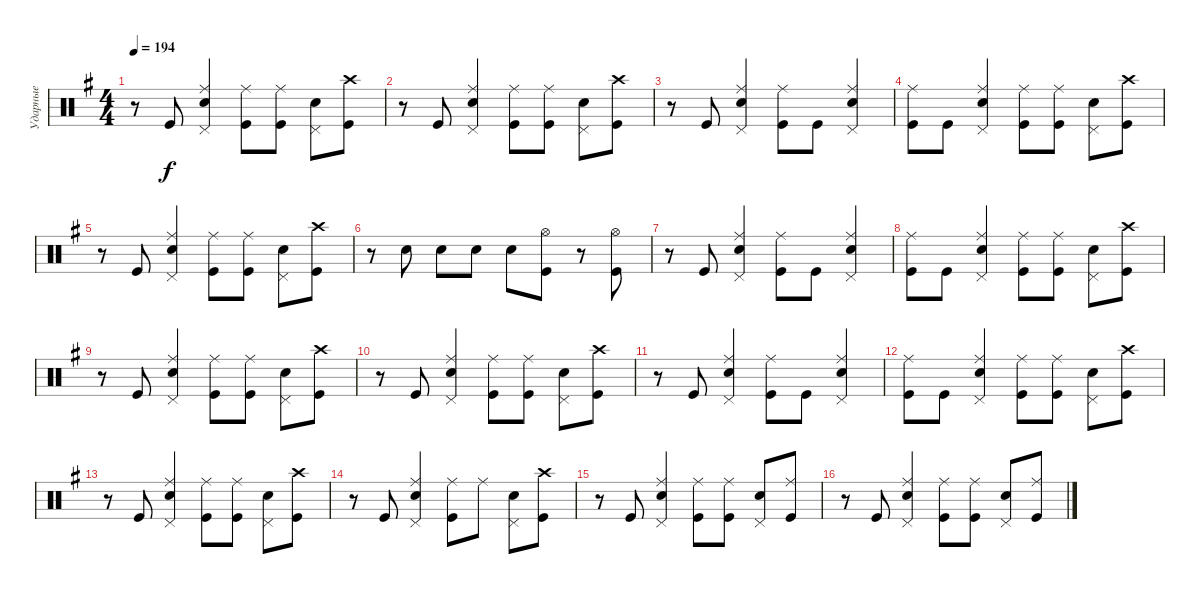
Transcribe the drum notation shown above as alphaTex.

\track ("Ударные" "Ударные") {instrument percussion}
\staff {score}
\articulation defaults
\ts (4 4)
\tempo 194
\clef neutral
\ks eminor
r.8{dy f} "Kick (hit)".8 ("Snare (hit) 2" "Ride (middle)" "Pedal Hi-Hat (hit)").4 ("Kick (hit)" "Ride (middle)").8 ("Kick (hit)" "Ride (middle)").8 ("Snare (hit) 2" "Pedal Hi-Hat (hit)").8 ("Kick (hit)" "Crash high (hit)").8 |
r.8 "Kick (hit)".8 ("Snare (hit) 2" "Ride (middle)" "Pedal Hi-Hat (hit)").4 ("Kick (hit)" "Ride (middle)").8 ("Kick (hit)" "Ride (middle)").8 ("Snare (hit) 2" "Pedal Hi-Hat (hit)").8 ("Kick (hit)" "Crash high (hit)").8 |
r.8 "Kick (hit)".8 ("Snare (hit) 2" "Ride (middle)" "Pedal Hi-Hat (hit)").4 ("Kick (hit)" "Ride (middle)").8 "Kick (hit)".8 ("Snare (hit) 2" "Ride (middle)" "Pedal Hi-Hat (hit)").4 |
("Kick (hit)" "Ride (middle)").8 "Kick (hit)".8 ("Snare (hit) 2" "Ride (middle)" "Pedal Hi-Hat (hit)").4 ("Kick (hit)" "Ride (middle)").8 ("Kick (hit)" "Ride (middle)").8 ("Snare (hit) 2" "Pedal Hi-Hat (hit)").8 ("Kick (hit)" "Crash high (hit)").8 |
r.8 "Kick (hit)".8 ("Snare (hit) 2" "Ride (middle)" "Pedal Hi-Hat (hit)").4 ("Kick (hit)" "Ride (middle)").8 ("Kick (hit)" "Ride (middle)").8 ("Snare (hit) 2" "Pedal Hi-Hat (hit)").8 ("Kick (hit)" "Crash high (hit)").8 |
r.8 "Snare (hit) 2".8 "Snare (hit) 2".8 "Snare (hit) 2".8 "Snare (hit) 2".8 ("Kick (hit)" "Hi-Hat (open)").8 r.8 ("Kick (hit)" "Hi-Hat (open)").8 |
r.8 "Kick (hit)".8 ("Snare (hit) 2" "Ride (middle)" "Pedal Hi-Hat (hit)").4 ("Kick (hit)" "Ride (middle)").8 "Kick (hit)".8 ("Snare (hit) 2" "Ride (middle)" "Pedal Hi-Hat (hit)").4 |
("Kick (hit)" "Ride (middle)").8 "Kick (hit)".8 ("Snare (hit) 2" "Ride (middle)" "Pedal Hi-Hat (hit)").4 ("Kick (hit)" "Ride (middle)").8 ("Kick (hit)" "Ride (middle)").8 ("Snare (hit) 2" "Pedal Hi-Hat (hit)").8 ("Kick (hit)" "Crash high (hit)").8 |
r.8 "Kick (hit)".8 ("Snare (hit) 2" "Ride (middle)" "Pedal Hi-Hat (hit)").4 ("Kick (hit)" "Ride (middle)").8 ("Kick (hit)" "Ride (middle)").8 ("Snare (hit) 2" "Pedal Hi-Hat (hit)").8 ("Kick (hit)" "Crash high (hit)").8 |
r.8 "Kick (hit)".8 ("Snare (hit) 2" "Ride (middle)" "Pedal Hi-Hat (hit)").4 ("Kick (hit)" "Ride (middle)").8 ("Kick (hit)" "Ride (middle)").8 ("Snare (hit) 2" "Pedal Hi-Hat (hit)").8 ("Kick (hit)" "Crash high (hit)").8 |
r.8 "Kick (hit)".8 ("Snare (hit) 2" "Ride (middle)" "Pedal Hi-Hat (hit)").4 ("Kick (hit)" "Ride (middle)").8 "Kick (hit)".8 ("Snare (hit) 2" "Ride (middle)" "Pedal Hi-Hat (hit)").4 |
("Kick (hit)" "Ride (middle)").8 "Kick (hit)".8 ("Snare (hit) 2" "Ride (middle)" "Pedal Hi-Hat (hit)").4 ("Kick (hit)" "Ride (middle)").8 ("Kick (hit)" "Ride (middle)").8 ("Snare (hit) 2" "Pedal Hi-Hat (hit)").8 ("Kick (hit)" "Crash high (hit)").8 |
r.8 "Kick (hit)".8 ("Snare (hit) 2" "Ride (middle)" "Pedal Hi-Hat (hit)").4 ("Kick (hit)" "Ride (middle)").8 ("Kick (hit)" "Ride (middle)").8 ("Snare (hit) 2" "Pedal Hi-Hat (hit)").8 ("Kick (hit)" "Crash high (hit)").8 |
r.8 "Kick (hit)".8 ("Snare (hit) 2" "Ride (middle)" "Pedal Hi-Hat (hit)").4 ("Kick (hit)" "Ride (middle)").8 "Ride (middle)".8 ("Snare (hit) 2" "Pedal Hi-Hat (hit)").8 ("Kick (hit)" "Crash high (hit)").8 |
r.8 "Kick (hit)".8 ("Snare (hit) 2" "Ride (middle)" "Pedal Hi-Hat (hit)").4 ("Kick (hit)" "Ride (middle)").8 ("Kick (hit)" "Ride (middle)").8 ("Snare (hit) 2" "Pedal Hi-Hat (hit)").8 ("Ride (middle)" "Kick (hit)").8 |
r.8 "Kick (hit)".8 ("Snare (hit) 2" "Ride (middle)" "Pedal Hi-Hat (hit)").4 ("Kick (hit)" "Ride (middle)").8 ("Kick (hit)" "Ride (middle)").8 ("Snare (hit) 2" "Pedal Hi-Hat (hit)").8 ("Ride (middle)" "Kick (hit)").8
